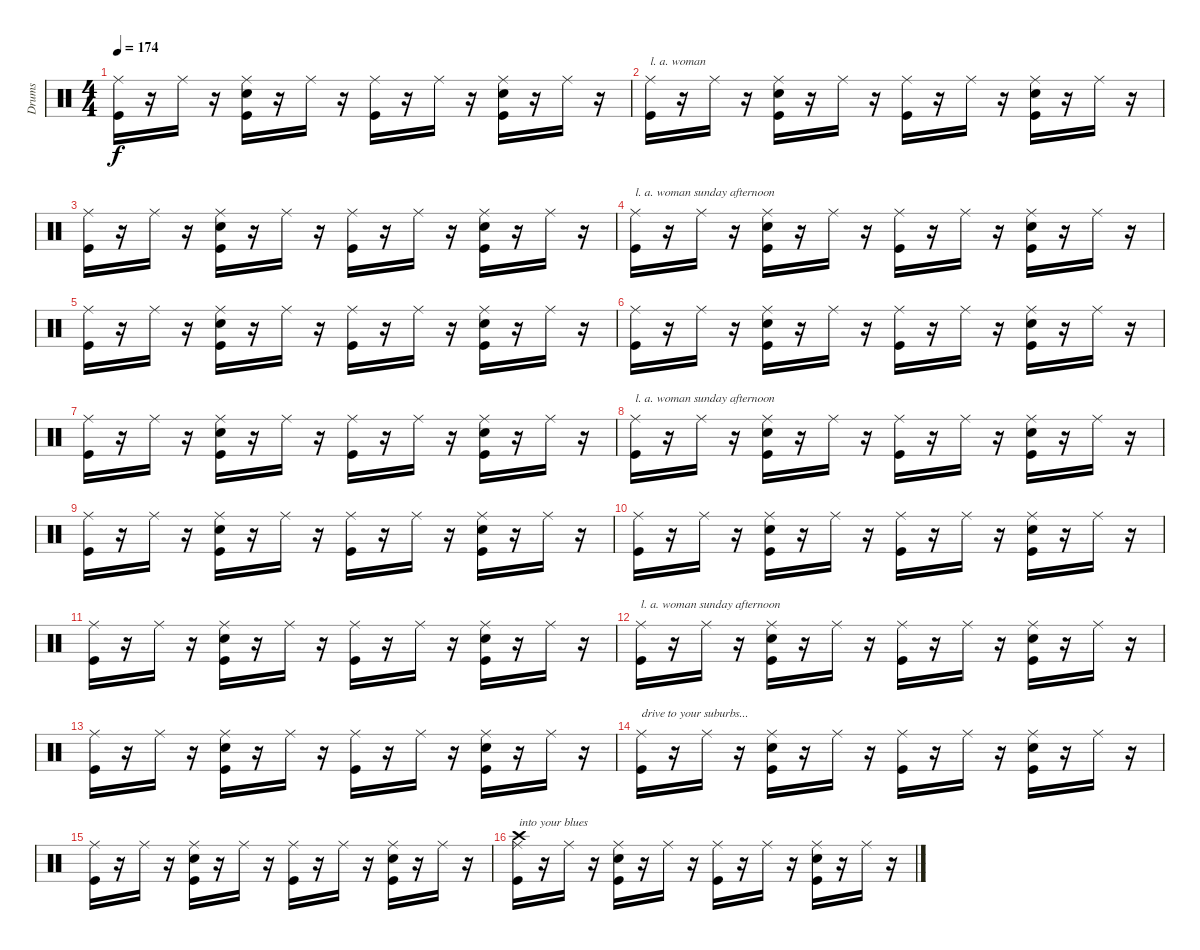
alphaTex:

\track ("Drums" "Drums") {instrument percussion}
\staff {score}
\articulation defaults
\ts (4 4)
\tempo 174
\clef neutral
\ks c
("Kick (hit)" "Ride (middle)").16{dy f} r.16 "Ride (middle)".16 r.16 ("Kick (hit)" "Snare (hit) 2" "Ride (middle)").16 r.16 "Ride (middle)".16 r.16 ("Kick (hit)" "Ride (middle)").16 r.16 "Ride (middle)".16 r.16 ("Kick (hit)" "Snare (hit) 2" "Ride (middle)").16 r.16 "Ride (middle)".16 r.16 |
("Kick (hit)" "Ride (middle)").16{txt "l. a. woman"} r.16 "Ride (middle)".16 r.16 ("Kick (hit)" "Snare (hit) 2" "Ride (middle)").16 r.16 "Ride (middle)".16 r.16 ("Kick (hit)" "Ride (middle)").16 r.16 "Ride (middle)".16 r.16 ("Kick (hit)" "Snare (hit) 2" "Ride (middle)").16 r.16 "Ride (middle)".16 r.16 |
("Kick (hit)" "Ride (middle)").16 r.16 "Ride (middle)".16 r.16 ("Kick (hit)" "Snare (hit) 2" "Ride (middle)").16 r.16 "Ride (middle)".16 r.16 ("Kick (hit)" "Ride (middle)").16 r.16 "Ride (middle)".16 r.16 ("Kick (hit)" "Snare (hit) 2" "Ride (middle)").16 r.16 "Ride (middle)".16 r.16 |
("Kick (hit)" "Ride (middle)").16{txt "l. a. woman sunday afternoon"} r.16 "Ride (middle)".16 r.16 ("Kick (hit)" "Snare (hit) 2" "Ride (middle)").16 r.16 "Ride (middle)".16 r.16 ("Kick (hit)" "Ride (middle)").16 r.16 "Ride (middle)".16 r.16 ("Kick (hit)" "Snare (hit) 2" "Ride (middle)").16 r.16 "Ride (middle)".16 r.16 |
("Kick (hit)" "Ride (middle)").16 r.16 "Ride (middle)".16 r.16 ("Kick (hit)" "Snare (hit) 2" "Ride (middle)").16 r.16 "Ride (middle)".16 r.16 ("Kick (hit)" "Ride (middle)").16 r.16 "Ride (middle)".16 r.16 ("Kick (hit)" "Snare (hit) 2" "Ride (middle)").16 r.16 "Ride (middle)".16 r.16 |
("Kick (hit)" "Ride (middle)").16 r.16 "Ride (middle)".16 r.16 ("Kick (hit)" "Snare (hit) 2" "Ride (middle)").16 r.16 "Ride (middle)".16 r.16 ("Kick (hit)" "Ride (middle)").16 r.16 "Ride (middle)".16 r.16 ("Kick (hit)" "Snare (hit) 2" "Ride (middle)").16 r.16 "Ride (middle)".16 r.16 |
("Kick (hit)" "Ride (middle)").16 r.16 "Ride (middle)".16 r.16 ("Kick (hit)" "Snare (hit) 2" "Ride (middle)").16 r.16 "Ride (middle)".16 r.16 ("Kick (hit)" "Ride (middle)").16 r.16 "Ride (middle)".16 r.16 ("Kick (hit)" "Snare (hit) 2" "Ride (middle)").16 r.16 "Ride (middle)".16 r.16 |
("Kick (hit)" "Ride (middle)").16{txt "l. a. woman sunday afternoon"} r.16 "Ride (middle)".16 r.16 ("Kick (hit)" "Snare (hit) 2" "Ride (middle)").16 r.16 "Ride (middle)".16 r.16 ("Kick (hit)" "Ride (middle)").16 r.16 "Ride (middle)".16 r.16 ("Kick (hit)" "Snare (hit) 2" "Ride (middle)").16 r.16 "Ride (middle)".16 r.16 |
("Kick (hit)" "Ride (middle)").16 r.16 "Ride (middle)".16 r.16 ("Kick (hit)" "Snare (hit) 2" "Ride (middle)").16 r.16 "Ride (middle)".16 r.16 ("Kick (hit)" "Ride (middle)").16 r.16 "Ride (middle)".16 r.16 ("Kick (hit)" "Snare (hit) 2" "Ride (middle)").16 r.16 "Ride (middle)".16 r.16 |
("Kick (hit)" "Ride (middle)").16 r.16 "Ride (middle)".16 r.16 ("Kick (hit)" "Snare (hit) 2" "Ride (middle)").16 r.16 "Ride (middle)".16 r.16 ("Kick (hit)" "Ride (middle)").16 r.16 "Ride (middle)".16 r.16 ("Kick (hit)" "Snare (hit) 2" "Ride (middle)").16 r.16 "Ride (middle)".16 r.16 |
("Kick (hit)" "Ride (middle)").16 r.16 "Ride (middle)".16 r.16 ("Kick (hit)" "Snare (hit) 2" "Ride (middle)").16 r.16 "Ride (middle)".16 r.16 ("Kick (hit)" "Ride (middle)").16 r.16 "Ride (middle)".16 r.16 ("Kick (hit)" "Snare (hit) 2" "Ride (middle)").16 r.16 "Ride (middle)".16 r.16 |
("Kick (hit)" "Ride (middle)").16{txt "l. a. woman sunday afternoon"} r.16 "Ride (middle)".16 r.16 ("Kick (hit)" "Snare (hit) 2" "Ride (middle)").16 r.16 "Ride (middle)".16 r.16 ("Kick (hit)" "Ride (middle)").16 r.16 "Ride (middle)".16 r.16 ("Kick (hit)" "Snare (hit) 2" "Ride (middle)").16 r.16 "Ride (middle)".16 r.16 |
("Kick (hit)" "Ride (middle)").16 r.16 "Ride (middle)".16 r.16 ("Kick (hit)" "Snare (hit) 2" "Ride (middle)").16 r.16 "Ride (middle)".16 r.16 ("Kick (hit)" "Ride (middle)").16 r.16 "Ride (middle)".16 r.16 ("Kick (hit)" "Snare (hit) 2" "Ride (middle)").16 r.16 "Ride (middle)".16 r.16 |
("Kick (hit)" "Ride (middle)").16{txt "drive to your suburbs... "} r.16 "Ride (middle)".16 r.16 ("Kick (hit)" "Snare (hit) 2" "Ride (middle)").16 r.16 "Ride (middle)".16 r.16 ("Kick (hit)" "Ride (middle)").16 r.16 "Ride (middle)".16 r.16 ("Kick (hit)" "Snare (hit) 2" "Ride (middle)").16 r.16 "Ride (middle)".16 r.16 |
("Kick (hit)" "Ride (middle)").16 r.16 "Ride (middle)".16 r.16 ("Kick (hit)" "Snare (hit) 2" "Ride (middle)").16 r.16 "Ride (middle)".16 r.16 ("Kick (hit)" "Ride (middle)").16 r.16 "Ride (middle)".16 r.16 ("Kick (hit)" "Snare (hit) 2" "Ride (middle)").16 r.16 "Ride (middle)".16 r.16 |
("Crash high (hit)" "Kick (hit)" "Ride (middle)").16{txt "into your blues"} r.16 "Ride (middle)".16 r.16 ("Kick (hit)" "Snare (hit) 2" "Ride (middle)").16 r.16 "Ride (middle)".16 r.16 ("Kick (hit)" "Ride (middle)").16 r.16 "Ride (middle)".16 r.16 ("Kick (hit)" "Snare (hit) 2" "Ride (middle)").16 r.16 "Ride (middle)".16 r.16
